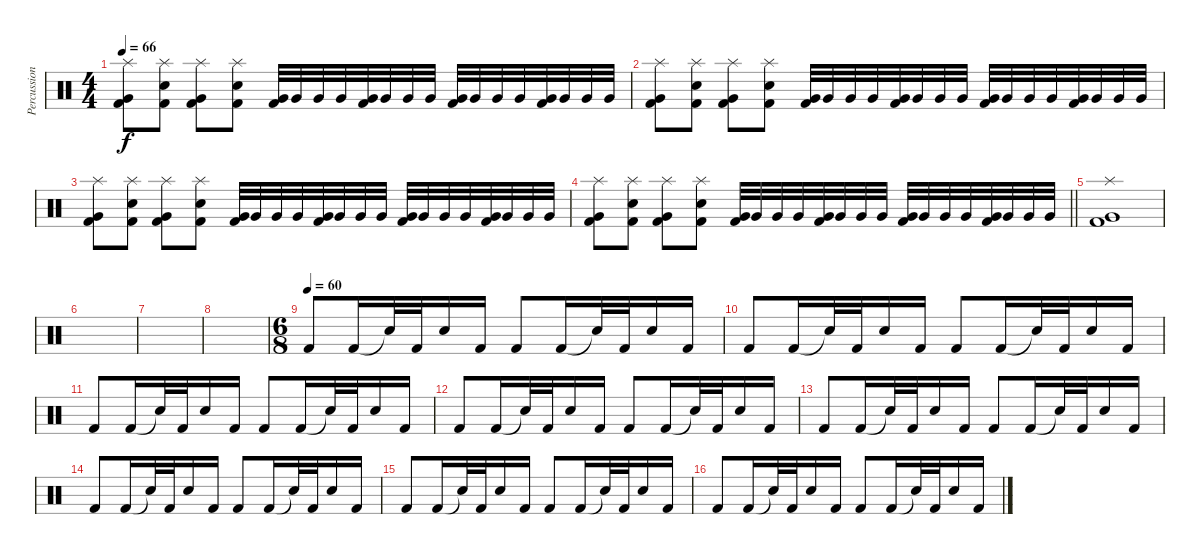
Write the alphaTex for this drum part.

\track ("Percussion" "Percussion") {instrument percussion}
\staff {score}
\articulation defaults
\ts (4 4)
\tempo 66
\clef neutral
\ks c
("Splash (hit)" "Very Low Tom (hit)" "Kick (hit) 2").8{dy f} ("Splash (hit)" "Snare (hit) 2" "Kick (hit) 2").8 ("Splash (hit)" "Very Low Tom (hit)" "Kick (hit) 2").8 ("Splash (hit)" "Snare (hit) 2" "Kick (hit) 2").8 ("Very Low Tom (hit)" "Kick (hit) 2").32 "Very Low Tom (hit)".32 "Very Low Tom (hit)".32 "Very Low Tom (hit)".32 ("Very Low Tom (hit)" "Kick (hit) 2").32 "Very Low Tom (hit)".32 "Very Low Tom (hit)".32 "Very Low Tom (hit)".32 ("Very Low Tom (hit)" "Kick (hit) 2").32 "Very Low Tom (hit)".32 "Very Low Tom (hit)".32 "Very Low Tom (hit)".32 ("Very Low Tom (hit)" "Kick (hit) 2").32 "Very Low Tom (hit)".32 "Very Low Tom (hit)".32 "Very Low Tom (hit)".32 |
("Splash (hit)" "Very Low Tom (hit)" "Kick (hit) 2").8 ("Splash (hit)" "Snare (hit) 2" "Kick (hit) 2").8 ("Splash (hit)" "Very Low Tom (hit)" "Kick (hit) 2").8 ("Splash (hit)" "Snare (hit) 2" "Kick (hit) 2").8 ("Very Low Tom (hit)" "Kick (hit) 2").32 "Very Low Tom (hit)".32 "Very Low Tom (hit)".32 "Very Low Tom (hit)".32 ("Very Low Tom (hit)" "Kick (hit) 2").32 "Very Low Tom (hit)".32 "Very Low Tom (hit)".32 "Very Low Tom (hit)".32 ("Very Low Tom (hit)" "Kick (hit) 2").32 "Very Low Tom (hit)".32 "Very Low Tom (hit)".32 "Very Low Tom (hit)".32 ("Very Low Tom (hit)" "Kick (hit) 2").32 "Very Low Tom (hit)".32 "Very Low Tom (hit)".32 "Very Low Tom (hit)".32 |
("Splash (hit)" "Very Low Tom (hit)" "Kick (hit) 2").8 ("Splash (hit)" "Snare (hit) 2" "Kick (hit) 2").8 ("Splash (hit)" "Very Low Tom (hit)" "Kick (hit) 2").8 ("Splash (hit)" "Snare (hit) 2" "Kick (hit) 2").8 ("Very Low Tom (hit)" "Kick (hit) 2").32 "Very Low Tom (hit)".32 "Very Low Tom (hit)".32 "Very Low Tom (hit)".32 ("Very Low Tom (hit)" "Kick (hit) 2").32 "Very Low Tom (hit)".32 "Very Low Tom (hit)".32 "Very Low Tom (hit)".32 ("Very Low Tom (hit)" "Kick (hit) 2").32 "Very Low Tom (hit)".32 "Very Low Tom (hit)".32 "Very Low Tom (hit)".32 ("Very Low Tom (hit)" "Kick (hit) 2").32 "Very Low Tom (hit)".32 "Very Low Tom (hit)".32 "Very Low Tom (hit)".32 |
\barLineRight lightlight
("Splash (hit)" "Very Low Tom (hit)" "Kick (hit) 2").8 ("Splash (hit)" "Snare (hit) 2" "Kick (hit) 2").8 ("Splash (hit)" "Very Low Tom (hit)" "Kick (hit) 2").8 ("Splash (hit)" "Snare (hit) 2" "Kick (hit) 2").8 ("Very Low Tom (hit)" "Kick (hit) 2").32 "Very Low Tom (hit)".32 "Very Low Tom (hit)".32 "Very Low Tom (hit)".32 ("Very Low Tom (hit)" "Kick (hit) 2").32 "Very Low Tom (hit)".32 "Very Low Tom (hit)".32 "Very Low Tom (hit)".32 ("Very Low Tom (hit)" "Kick (hit) 2").32 "Very Low Tom (hit)".32 "Very Low Tom (hit)".32 "Very Low Tom (hit)".32 ("Very Low Tom (hit)" "Kick (hit) 2").32 "Very Low Tom (hit)".32 "Very Low Tom (hit)".32 "Very Low Tom (hit)".32 |
("Splash (hit)" "Very Low Tom (hit)" "Kick (hit) 2").1 |
|
|
|
\ts (6 8)
\tempo (60)
"Kick (hit) 2".8 "Kick (hit) 2".16 "Snare (hit)"{t}.32 "Kick (hit) 2".32 "Snare (hit) 2".16 "Kick (hit) 2".16 "Kick (hit) 2".8 "Kick (hit) 2".16 "Snare (hit)"{t}.32 "Kick (hit) 2".32 "Snare (hit) 2".16 "Kick (hit) 2".16 |
"Kick (hit) 2".8 "Kick (hit) 2".16 "Snare (hit)"{t}.32 "Kick (hit) 2".32 "Snare (hit) 2".16 "Kick (hit) 2".16 "Kick (hit) 2".8 "Kick (hit) 2".16 "Snare (hit)"{t}.32 "Kick (hit) 2".32 "Snare (hit) 2".16 "Kick (hit) 2".16 |
"Kick (hit) 2".8 "Kick (hit) 2".16 "Snare (hit)"{t}.32 "Kick (hit) 2".32 "Snare (hit) 2".16 "Kick (hit) 2".16 "Kick (hit) 2".8 "Kick (hit) 2".16 "Snare (hit)"{t}.32 "Kick (hit) 2".32 "Snare (hit) 2".16 "Kick (hit) 2".16 |
"Kick (hit) 2".8 "Kick (hit) 2".16 "Snare (hit)"{t}.32 "Kick (hit) 2".32 "Snare (hit) 2".16 "Kick (hit) 2".16 "Kick (hit) 2".8 "Kick (hit) 2".16 "Snare (hit)"{t}.32 "Kick (hit) 2".32 "Snare (hit) 2".16 "Kick (hit) 2".16 |
"Kick (hit) 2".8 "Kick (hit) 2".16 "Snare (hit)"{t}.32 "Kick (hit) 2".32 "Snare (hit) 2".16 "Kick (hit) 2".16 "Kick (hit) 2".8 "Kick (hit) 2".16 "Snare (hit)"{t}.32 "Kick (hit) 2".32 "Snare (hit) 2".16 "Kick (hit) 2".16 |
"Kick (hit) 2".8 "Kick (hit) 2".16 "Snare (hit)"{t}.32 "Kick (hit) 2".32 "Snare (hit) 2".16 "Kick (hit) 2".16 "Kick (hit) 2".8 "Kick (hit) 2".16 "Snare (hit)"{t}.32 "Kick (hit) 2".32 "Snare (hit) 2".16 "Kick (hit) 2".16 |
"Kick (hit) 2".8 "Kick (hit) 2".16 "Snare (hit)"{t}.32 "Kick (hit) 2".32 "Snare (hit) 2".16 "Kick (hit) 2".16 "Kick (hit) 2".8 "Kick (hit) 2".16 "Snare (hit)"{t}.32 "Kick (hit) 2".32 "Snare (hit) 2".16 "Kick (hit) 2".16 |
"Kick (hit) 2".8 "Kick (hit) 2".16 "Snare (hit)"{t}.32 "Kick (hit) 2".32 "Snare (hit) 2".16 "Kick (hit) 2".16 "Kick (hit) 2".8 "Kick (hit) 2".16 "Snare (hit)"{t}.32 "Kick (hit) 2".32 "Snare (hit) 2".16 "Kick (hit) 2".16
